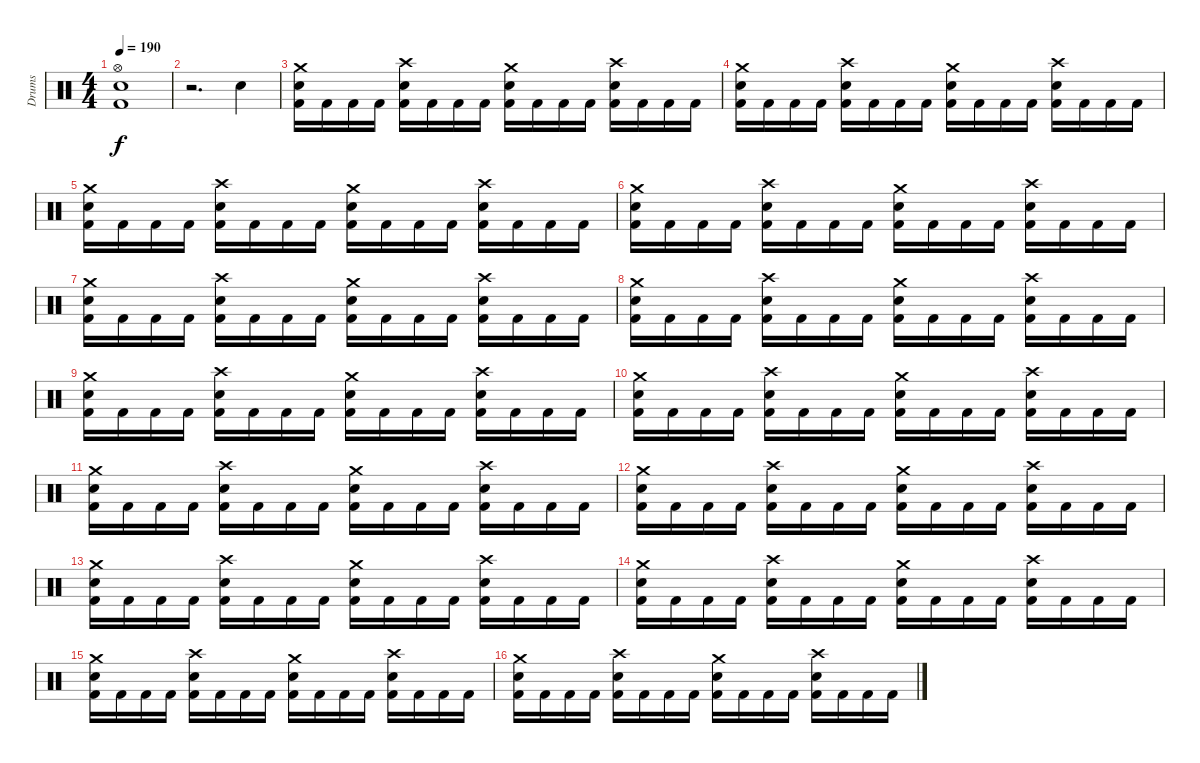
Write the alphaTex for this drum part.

\track ("Drums" "Drums") {instrument percussion}
\staff {score}
\articulation defaults
\ts (4 4)
\tempo 190
\clef neutral
\ks c
("Hi-Hat (open)" "Kick (hit) 2" "Snare (hit) 2").1{dy f} |
r.2{d} "Snare (hit) 2".4 |
("Crash medium (hit)" "Kick (hit) 2" "Snare (hit) 2").16 "Kick (hit) 2".16 "Kick (hit) 2".16 "Kick (hit) 2".16 ("Crash high (hit)" "Kick (hit) 2" "Snare (hit) 2").16 "Kick (hit) 2".16 "Kick (hit) 2".16 "Kick (hit) 2".16 ("Crash medium (hit)" "Kick (hit) 2" "Snare (hit) 2").16 "Kick (hit) 2".16 "Kick (hit) 2".16 "Kick (hit) 2".16 ("Crash high (hit)" "Kick (hit) 2" "Snare (hit) 2").16 "Kick (hit) 2".16 "Kick (hit) 2".16 "Kick (hit) 2".16 |
("Crash medium (hit)" "Kick (hit) 2" "Snare (hit) 2").16 "Kick (hit) 2".16 "Kick (hit) 2".16 "Kick (hit) 2".16 ("Crash high (hit)" "Kick (hit) 2" "Snare (hit) 2").16 "Kick (hit) 2".16 "Kick (hit) 2".16 "Kick (hit) 2".16 ("Crash medium (hit)" "Kick (hit) 2" "Snare (hit) 2").16 "Kick (hit) 2".16 "Kick (hit) 2".16 "Kick (hit) 2".16 ("Crash high (hit)" "Kick (hit) 2" "Snare (hit) 2").16 "Kick (hit) 2".16 "Kick (hit) 2".16 "Kick (hit) 2".16 |
("Crash medium (hit)" "Kick (hit) 2" "Snare (hit) 2").16 "Kick (hit) 2".16 "Kick (hit) 2".16 "Kick (hit) 2".16 ("Crash high (hit)" "Kick (hit) 2" "Snare (hit) 2").16 "Kick (hit) 2".16 "Kick (hit) 2".16 "Kick (hit) 2".16 ("Crash medium (hit)" "Kick (hit) 2" "Snare (hit) 2").16 "Kick (hit) 2".16 "Kick (hit) 2".16 "Kick (hit) 2".16 ("Crash high (hit)" "Kick (hit) 2" "Snare (hit) 2").16 "Kick (hit) 2".16 "Kick (hit) 2".16 "Kick (hit) 2".16 |
("Crash medium (hit)" "Kick (hit) 2" "Snare (hit) 2").16 "Kick (hit) 2".16 "Kick (hit) 2".16 "Kick (hit) 2".16 ("Crash high (hit)" "Kick (hit) 2" "Snare (hit) 2").16 "Kick (hit) 2".16 "Kick (hit) 2".16 "Kick (hit) 2".16 ("Crash medium (hit)" "Kick (hit) 2" "Snare (hit) 2").16 "Kick (hit) 2".16 "Kick (hit) 2".16 "Kick (hit) 2".16 ("Crash high (hit)" "Kick (hit) 2" "Snare (hit) 2").16 "Kick (hit) 2".16 "Kick (hit) 2".16 "Kick (hit) 2".16 |
("Crash medium (hit)" "Kick (hit) 2" "Snare (hit) 2").16 "Kick (hit) 2".16 "Kick (hit) 2".16 "Kick (hit) 2".16 ("Crash high (hit)" "Kick (hit) 2" "Snare (hit) 2").16 "Kick (hit) 2".16 "Kick (hit) 2".16 "Kick (hit) 2".16 ("Crash medium (hit)" "Kick (hit) 2" "Snare (hit) 2").16 "Kick (hit) 2".16 "Kick (hit) 2".16 "Kick (hit) 2".16 ("Crash high (hit)" "Kick (hit) 2" "Snare (hit) 2").16 "Kick (hit) 2".16 "Kick (hit) 2".16 "Kick (hit) 2".16 |
("Crash medium (hit)" "Kick (hit) 2" "Snare (hit) 2").16 "Kick (hit) 2".16 "Kick (hit) 2".16 "Kick (hit) 2".16 ("Crash high (hit)" "Kick (hit) 2" "Snare (hit) 2").16 "Kick (hit) 2".16 "Kick (hit) 2".16 "Kick (hit) 2".16 ("Crash medium (hit)" "Kick (hit) 2" "Snare (hit) 2").16 "Kick (hit) 2".16 "Kick (hit) 2".16 "Kick (hit) 2".16 ("Crash high (hit)" "Kick (hit) 2" "Snare (hit) 2").16 "Kick (hit) 2".16 "Kick (hit) 2".16 "Kick (hit) 2".16 |
("Crash medium (hit)" "Kick (hit) 2" "Snare (hit) 2").16 "Kick (hit) 2".16 "Kick (hit) 2".16 "Kick (hit) 2".16 ("Crash high (hit)" "Kick (hit) 2" "Snare (hit) 2").16 "Kick (hit) 2".16 "Kick (hit) 2".16 "Kick (hit) 2".16 ("Crash medium (hit)" "Kick (hit) 2" "Snare (hit) 2").16 "Kick (hit) 2".16 "Kick (hit) 2".16 "Kick (hit) 2".16 ("Crash high (hit)" "Kick (hit) 2" "Snare (hit) 2").16 "Kick (hit) 2".16 "Kick (hit) 2".16 "Kick (hit) 2".16 |
("Crash medium (hit)" "Kick (hit) 2" "Snare (hit) 2").16 "Kick (hit) 2".16 "Kick (hit) 2".16 "Kick (hit) 2".16 ("Crash high (hit)" "Kick (hit) 2" "Snare (hit) 2").16 "Kick (hit) 2".16 "Kick (hit) 2".16 "Kick (hit) 2".16 ("Crash medium (hit)" "Kick (hit) 2" "Snare (hit) 2").16 "Kick (hit) 2".16 "Kick (hit) 2".16 "Kick (hit) 2".16 ("Crash high (hit)" "Kick (hit) 2" "Snare (hit) 2").16 "Kick (hit) 2".16 "Kick (hit) 2".16 "Kick (hit) 2".16 |
("Crash medium (hit)" "Kick (hit) 2" "Snare (hit) 2").16 "Kick (hit) 2".16 "Kick (hit) 2".16 "Kick (hit) 2".16 ("Crash high (hit)" "Kick (hit) 2" "Snare (hit) 2").16 "Kick (hit) 2".16 "Kick (hit) 2".16 "Kick (hit) 2".16 ("Crash medium (hit)" "Kick (hit) 2" "Snare (hit) 2").16 "Kick (hit) 2".16 "Kick (hit) 2".16 "Kick (hit) 2".16 ("Crash high (hit)" "Kick (hit) 2" "Snare (hit) 2").16 "Kick (hit) 2".16 "Kick (hit) 2".16 "Kick (hit) 2".16 |
("Crash medium (hit)" "Kick (hit) 2" "Snare (hit) 2").16 "Kick (hit) 2".16 "Kick (hit) 2".16 "Kick (hit) 2".16 ("Crash high (hit)" "Kick (hit) 2" "Snare (hit) 2").16 "Kick (hit) 2".16 "Kick (hit) 2".16 "Kick (hit) 2".16 ("Crash medium (hit)" "Kick (hit) 2" "Snare (hit) 2").16 "Kick (hit) 2".16 "Kick (hit) 2".16 "Kick (hit) 2".16 ("Crash high (hit)" "Kick (hit) 2" "Snare (hit) 2").16 "Kick (hit) 2".16 "Kick (hit) 2".16 "Kick (hit) 2".16 |
("Crash medium (hit)" "Kick (hit) 2" "Snare (hit) 2").16 "Kick (hit) 2".16 "Kick (hit) 2".16 "Kick (hit) 2".16 ("Crash high (hit)" "Kick (hit) 2" "Snare (hit) 2").16 "Kick (hit) 2".16 "Kick (hit) 2".16 "Kick (hit) 2".16 ("Crash medium (hit)" "Kick (hit) 2" "Snare (hit) 2").16 "Kick (hit) 2".16 "Kick (hit) 2".16 "Kick (hit) 2".16 ("Crash high (hit)" "Kick (hit) 2" "Snare (hit) 2").16 "Kick (hit) 2".16 "Kick (hit) 2".16 "Kick (hit) 2".16 |
("Crash medium (hit)" "Kick (hit) 2" "Snare (hit) 2").16 "Kick (hit) 2".16 "Kick (hit) 2".16 "Kick (hit) 2".16 ("Crash high (hit)" "Kick (hit) 2" "Snare (hit) 2").16 "Kick (hit) 2".16 "Kick (hit) 2".16 "Kick (hit) 2".16 ("Crash medium (hit)" "Kick (hit) 2" "Snare (hit) 2").16 "Kick (hit) 2".16 "Kick (hit) 2".16 "Kick (hit) 2".16 ("Crash high (hit)" "Kick (hit) 2" "Snare (hit) 2").16 "Kick (hit) 2".16 "Kick (hit) 2".16 "Kick (hit) 2".16 |
("Crash medium (hit)" "Kick (hit) 2" "Snare (hit) 2").16 "Kick (hit) 2".16 "Kick (hit) 2".16 "Kick (hit) 2".16 ("Crash high (hit)" "Kick (hit) 2" "Snare (hit) 2").16 "Kick (hit) 2".16 "Kick (hit) 2".16 "Kick (hit) 2".16 ("Crash medium (hit)" "Kick (hit) 2" "Snare (hit) 2").16 "Kick (hit) 2".16 "Kick (hit) 2".16 "Kick (hit) 2".16 ("Crash high (hit)" "Kick (hit) 2" "Snare (hit) 2").16 "Kick (hit) 2".16 "Kick (hit) 2".16 "Kick (hit) 2".16 |
("Crash medium (hit)" "Kick (hit) 2" "Snare (hit) 2").16 "Kick (hit) 2".16 "Kick (hit) 2".16 "Kick (hit) 2".16 ("Crash high (hit)" "Kick (hit) 2" "Snare (hit) 2").16 "Kick (hit) 2".16 "Kick (hit) 2".16 "Kick (hit) 2".16 ("Crash medium (hit)" "Kick (hit) 2" "Snare (hit) 2").16 "Kick (hit) 2".16 "Kick (hit) 2".16 "Kick (hit) 2".16 ("Crash high (hit)" "Kick (hit) 2" "Snare (hit) 2").16 "Kick (hit) 2".16 "Kick (hit) 2".16 "Kick (hit) 2".16
